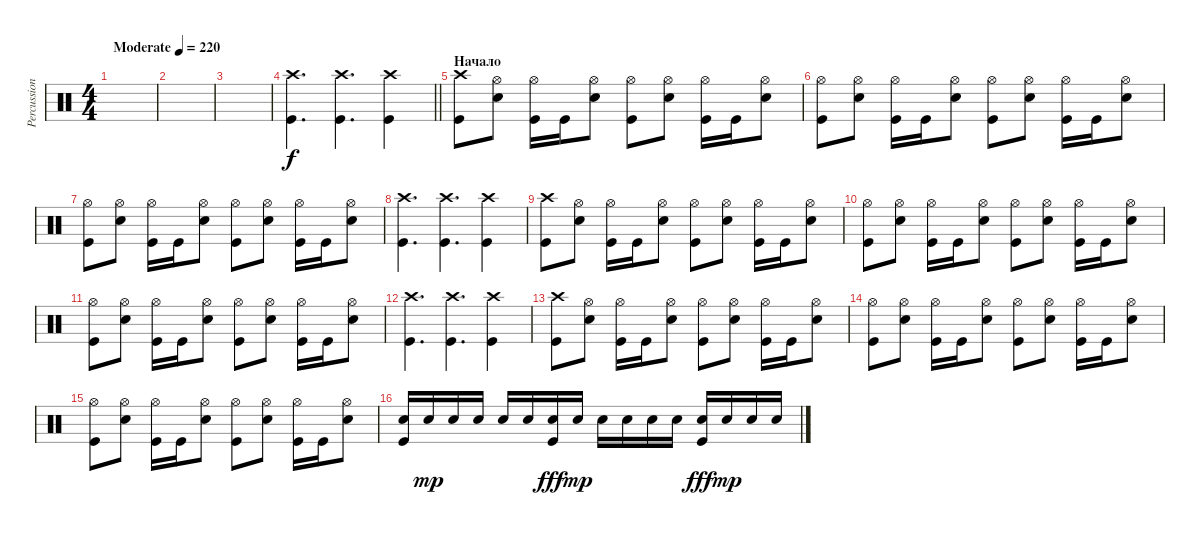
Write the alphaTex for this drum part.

\track ("Percussion" "Percussion") {instrument percussion}
\staff {score}
\articulation defaults
\ts (4 4)
\tempo (220 "Moderate")
\clef neutral
\ks c
|
|
|
\barLineRight lightlight
("Crash high (hit)" "Kick (hit)").4{d} ("Crash high (hit)" "Kick (hit)").4{d} ("Crash high (hit)" "Kick (hit)").4 |
\section ("" "Начало")
("Crash high (hit)" "Kick (hit)").8 ("Hi-Hat (open)" "Snare (hit) 2").8 ("Hi-Hat (open)" "Kick (hit)").16 "Kick (hit)".16 ("Hi-Hat (open)" "Snare (hit) 2").8 ("Hi-Hat (open)" "Kick (hit)").8 ("Hi-Hat (open)" "Snare (hit) 2").8 ("Hi-Hat (open)" "Kick (hit)").16 "Kick (hit)".16 ("Hi-Hat (open)" "Snare (hit) 2").8 |
("Hi-Hat (open)" "Kick (hit)").8 ("Hi-Hat (open)" "Snare (hit) 2").8 ("Hi-Hat (open)" "Kick (hit)").16 "Kick (hit)".16 ("Hi-Hat (open)" "Snare (hit) 2").8 ("Hi-Hat (open)" "Kick (hit)").8 ("Hi-Hat (open)" "Snare (hit) 2").8 ("Hi-Hat (open)" "Kick (hit)").16 "Kick (hit)".16 ("Hi-Hat (open)" "Snare (hit) 2").8 |
("Hi-Hat (open)" "Kick (hit)").8 ("Hi-Hat (open)" "Snare (hit) 2").8 ("Hi-Hat (open)" "Kick (hit)").16 "Kick (hit)".16 ("Hi-Hat (open)" "Snare (hit) 2").8 ("Hi-Hat (open)" "Kick (hit)").8 ("Hi-Hat (open)" "Snare (hit) 2").8 ("Hi-Hat (open)" "Kick (hit)").16 "Kick (hit)".16 ("Hi-Hat (open)" "Snare (hit) 2").8 |
("Crash high (hit)" "Kick (hit)").4{d} ("Crash high (hit)" "Kick (hit)").4{d} ("Crash high (hit)" "Kick (hit)").4 |
("Crash high (hit)" "Kick (hit)").8 ("Hi-Hat (open)" "Snare (hit) 2").8 ("Hi-Hat (open)" "Kick (hit)").16 "Kick (hit)".16 ("Hi-Hat (open)" "Snare (hit) 2").8 ("Hi-Hat (open)" "Kick (hit)").8 ("Hi-Hat (open)" "Snare (hit) 2").8 ("Hi-Hat (open)" "Kick (hit)").16 "Kick (hit)".16 ("Hi-Hat (open)" "Snare (hit) 2").8 |
("Hi-Hat (open)" "Kick (hit)").8 ("Hi-Hat (open)" "Snare (hit) 2").8 ("Hi-Hat (open)" "Kick (hit)").16 "Kick (hit)".16 ("Hi-Hat (open)" "Snare (hit) 2").8 ("Hi-Hat (open)" "Kick (hit)").8 ("Hi-Hat (open)" "Snare (hit) 2").8 ("Hi-Hat (open)" "Kick (hit)").16 "Kick (hit)".16 ("Hi-Hat (open)" "Snare (hit) 2").8 |
("Hi-Hat (open)" "Kick (hit)").8 ("Hi-Hat (open)" "Snare (hit) 2").8 ("Hi-Hat (open)" "Kick (hit)").16 "Kick (hit)".16 ("Hi-Hat (open)" "Snare (hit) 2").8 ("Hi-Hat (open)" "Kick (hit)").8 ("Hi-Hat (open)" "Snare (hit) 2").8 ("Hi-Hat (open)" "Kick (hit)").16 "Kick (hit)".16 ("Hi-Hat (open)" "Snare (hit) 2").8 |
("Crash high (hit)" "Kick (hit)").4{d} ("Crash high (hit)" "Kick (hit)").4{d} ("Crash high (hit)" "Kick (hit)").4 |
("Crash high (hit)" "Kick (hit)").8 ("Hi-Hat (open)" "Snare (hit) 2").8 ("Hi-Hat (open)" "Kick (hit)").16 "Kick (hit)".16 ("Hi-Hat (open)" "Snare (hit) 2").8 ("Hi-Hat (open)" "Kick (hit)").8 ("Hi-Hat (open)" "Snare (hit) 2").8 ("Hi-Hat (open)" "Kick (hit)").16 "Kick (hit)".16 ("Hi-Hat (open)" "Snare (hit) 2").8 |
("Hi-Hat (open)" "Kick (hit)").8 ("Hi-Hat (open)" "Snare (hit) 2").8 ("Hi-Hat (open)" "Kick (hit)").16 "Kick (hit)".16 ("Hi-Hat (open)" "Snare (hit) 2").8 ("Hi-Hat (open)" "Kick (hit)").8 ("Hi-Hat (open)" "Snare (hit) 2").8 ("Hi-Hat (open)" "Kick (hit)").16 "Kick (hit)".16 ("Hi-Hat (open)" "Snare (hit) 2").8 |
("Hi-Hat (open)" "Kick (hit)").8 ("Hi-Hat (open)" "Snare (hit) 2").8 ("Hi-Hat (open)" "Kick (hit)").16 "Kick (hit)".16 ("Hi-Hat (open)" "Snare (hit) 2").8 ("Hi-Hat (open)" "Kick (hit)").8 ("Hi-Hat (open)" "Snare (hit) 2").8 ("Hi-Hat (open)" "Kick (hit)").16 "Kick (hit)".16 ("Hi-Hat (open)" "Snare (hit) 2").8 |
("Snare (hit) 2" "Kick (hit)").16 "Snare (hit) 2".16{dy mp} "Snare (hit) 2".16 "Snare (hit) 2".16 "Snare (hit) 2".16 "Snare (hit) 2".16 ("Snare (hit) 2" "Kick (hit)").16{dy fff} "Snare (hit) 2".16{dy mp} "Snare (hit) 2".16 "Snare (hit) 2".16 "Snare (hit) 2".16 "Snare (hit) 2".16 ("Snare (hit) 2" "Kick (hit)").16{dy fff} "Snare (hit) 2".16{dy mp} "Snare (hit) 2".16 "Snare (hit) 2".16
